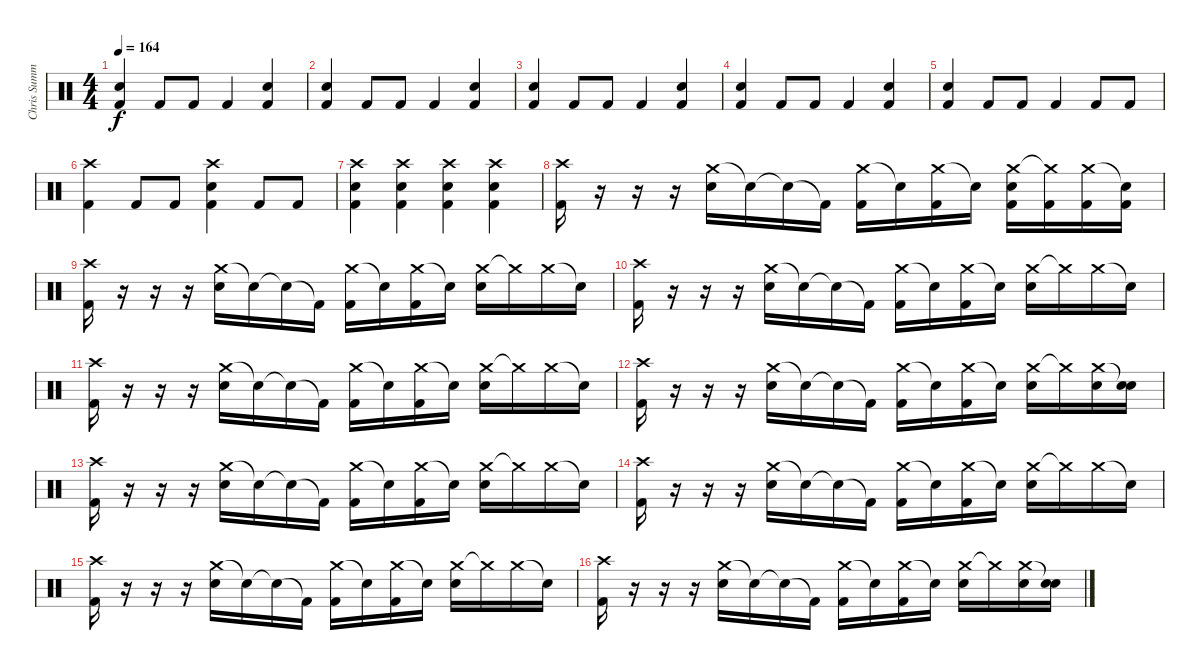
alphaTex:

\track ("Chris Summers" "Chris Summ") {instrument percussion}
\staff {score}
\articulation defaults
\ts (4 4)
\tempo 164
\clef neutral
\ks c
("Snare (hit) 2" "Kick (hit) 2").4{dy f} "Kick (hit) 2".8 "Kick (hit) 2".8 "Kick (hit) 2".4 ("Snare (hit) 2" "Kick (hit) 2").4 |
("Snare (hit) 2" "Kick (hit) 2").4 "Kick (hit) 2".8 "Kick (hit) 2".8 "Kick (hit) 2".4 ("Snare (hit) 2" "Kick (hit) 2").4 |
("Snare (hit) 2" "Kick (hit) 2").4 "Kick (hit) 2".8 "Kick (hit) 2".8 "Kick (hit) 2".4 ("Snare (hit) 2" "Kick (hit) 2").4 |
("Snare (hit) 2" "Kick (hit) 2").4 "Kick (hit) 2".8 "Kick (hit) 2".8 "Kick (hit) 2".4 ("Snare (hit) 2" "Kick (hit) 2").4 |
("Snare (hit) 2" "Kick (hit) 2").4 "Kick (hit) 2".8 "Kick (hit) 2".8 "Kick (hit) 2".4 "Kick (hit) 2".8 "Kick (hit) 2".8 |
("Crash high (hit)" "Kick (hit) 2").4 "Kick (hit) 2".8 "Kick (hit) 2".8 ("Crash high (hit)" "Snare (hit) 2" "Kick (hit) 2").4 "Kick (hit) 2".8 "Kick (hit) 2".8 |
("Crash high (hit)" "Snare (hit) 2" "Kick (hit) 2").4 ("Crash high (hit)" "Snare (hit) 2" "Kick (hit) 2").4 ("Crash high (hit)" "Snare (hit) 2" "Kick (hit) 2").4 ("Crash high (hit)" "Snare (hit) 2" "Kick (hit) 2").4 |
("Crash high (hit)" "Kick (hit) 2").16 r.16 r.16 r.16 ("Crash medium (hit)" "Snare (hit) 2").16 "Snare (hit)"{t}.16 "Snare (hit)"{t}.16 "Kick (hit) 2"{t}.16 ("Crash medium (hit)" "Kick (hit) 2").16 "Snare (hit)"{t}.16 ("Crash medium (hit)" "Kick (hit) 2").16 "Snare (hit)"{t}.16 ("Crash medium (hit)" "Snare (hit) 2" "Kick (hit) 2").16 ("Crash medium (hit)"{t} "Kick (hit) 2").16 ("Crash medium (hit)" "Kick (hit) 2").16 ("Snare (hit)"{t} "Kick (hit) 2").16 |
("Crash high (hit)" "Kick (hit) 2").16 r.16 r.16 r.16 ("Crash medium (hit)" "Snare (hit) 2").16 "Snare (hit)"{t}.16 "Snare (hit)"{t}.16 "Kick (hit) 2"{t}.16 ("Crash medium (hit)" "Kick (hit) 2").16 "Snare (hit)"{t}.16 ("Crash medium (hit)" "Kick (hit) 2").16 "Snare (hit)"{t}.16 ("Crash medium (hit)" "Snare (hit) 2").16 "Crash medium (hit)"{t}.16 "Crash medium (hit)".16 "Snare (hit)"{t}.16 |
("Crash high (hit)" "Kick (hit) 2").16 r.16 r.16 r.16 ("Crash medium (hit)" "Snare (hit) 2").16 "Snare (hit)"{t}.16 "Snare (hit)"{t}.16 "Kick (hit) 2"{t}.16 ("Crash medium (hit)" "Kick (hit) 2").16 "Snare (hit)"{t}.16 ("Crash medium (hit)" "Kick (hit) 2").16 "Snare (hit)"{t}.16 ("Crash medium (hit)" "Snare (hit) 2").16 "Crash medium (hit)"{t}.16 "Crash medium (hit)".16 "Snare (hit)"{t}.16 |
("Crash high (hit)" "Kick (hit) 2").16 r.16 r.16 r.16 ("Crash medium (hit)" "Snare (hit) 2").16 "Snare (hit)"{t}.16 "Snare (hit)"{t}.16 "Kick (hit) 2"{t}.16 ("Crash medium (hit)" "Kick (hit) 2").16 "Snare (hit)"{t}.16 ("Crash medium (hit)" "Kick (hit) 2").16 "Snare (hit)"{t}.16 ("Crash medium (hit)" "Snare (hit) 2").16 "Crash medium (hit)"{t}.16 "Crash medium (hit)".16 "Snare (hit)"{t}.16 |
("Crash high (hit)" "Kick (hit) 2").16 r.16 r.16 r.16 ("Crash medium (hit)" "Snare (hit) 2").16 "Snare (hit)"{t}.16 "Snare (hit)"{t}.16 "Kick (hit) 2"{t}.16 ("Crash medium (hit)" "Kick (hit) 2").16 "Snare (hit)"{t}.16 ("Crash medium (hit)" "Kick (hit) 2").16 "Snare (hit)"{t}.16 ("Crash medium (hit)" "Snare (hit) 2").16 "Crash medium (hit)"{t}.16 ("Crash medium (hit)" "Snare (hit) 2").16 ("Snare (hit)"{t} "Snare (hit) 2").16 |
("Crash high (hit)" "Kick (hit) 2").16 r.16 r.16 r.16 ("Crash medium (hit)" "Snare (hit) 2").16 "Snare (hit)"{t}.16 "Snare (hit)"{t}.16 "Kick (hit) 2"{t}.16 ("Crash medium (hit)" "Kick (hit) 2").16 "Snare (hit)"{t}.16 ("Crash medium (hit)" "Kick (hit) 2").16 "Snare (hit)"{t}.16 ("Crash medium (hit)" "Snare (hit) 2").16 "Crash medium (hit)"{t}.16 "Crash medium (hit)".16 "Snare (hit)"{t}.16 |
("Crash high (hit)" "Kick (hit) 2").16 r.16 r.16 r.16 ("Crash medium (hit)" "Snare (hit) 2").16 "Snare (hit)"{t}.16 "Snare (hit)"{t}.16 "Kick (hit) 2"{t}.16 ("Crash medium (hit)" "Kick (hit) 2").16 "Snare (hit)"{t}.16 ("Crash medium (hit)" "Kick (hit) 2").16 "Snare (hit)"{t}.16 ("Crash medium (hit)" "Snare (hit) 2").16 "Crash medium (hit)"{t}.16 "Crash medium (hit)".16 "Snare (hit)"{t}.16 |
("Crash high (hit)" "Kick (hit) 2").16 r.16 r.16 r.16 ("Crash medium (hit)" "Snare (hit) 2").16 "Snare (hit)"{t}.16 "Snare (hit)"{t}.16 "Kick (hit) 2"{t}.16 ("Crash medium (hit)" "Kick (hit) 2").16 "Snare (hit)"{t}.16 ("Crash medium (hit)" "Kick (hit) 2").16 "Snare (hit)"{t}.16 ("Crash medium (hit)" "Snare (hit) 2").16 "Crash medium (hit)"{t}.16 "Crash medium (hit)".16 "Snare (hit)"{t}.16 |
("Crash high (hit)" "Kick (hit) 2").16 r.16 r.16 r.16 ("Crash medium (hit)" "Snare (hit) 2").16 "Snare (hit)"{t}.16 "Snare (hit)"{t}.16 "Kick (hit) 2"{t}.16 ("Crash medium (hit)" "Kick (hit) 2").16 "Snare (hit)"{t}.16 ("Crash medium (hit)" "Kick (hit) 2").16 "Snare (hit)"{t}.16 ("Crash medium (hit)" "Snare (hit) 2").16 "Crash medium (hit)"{t}.16 ("Crash medium (hit)" "Snare (hit) 2").16 ("Snare (hit)"{t} "Snare (hit) 2").16
